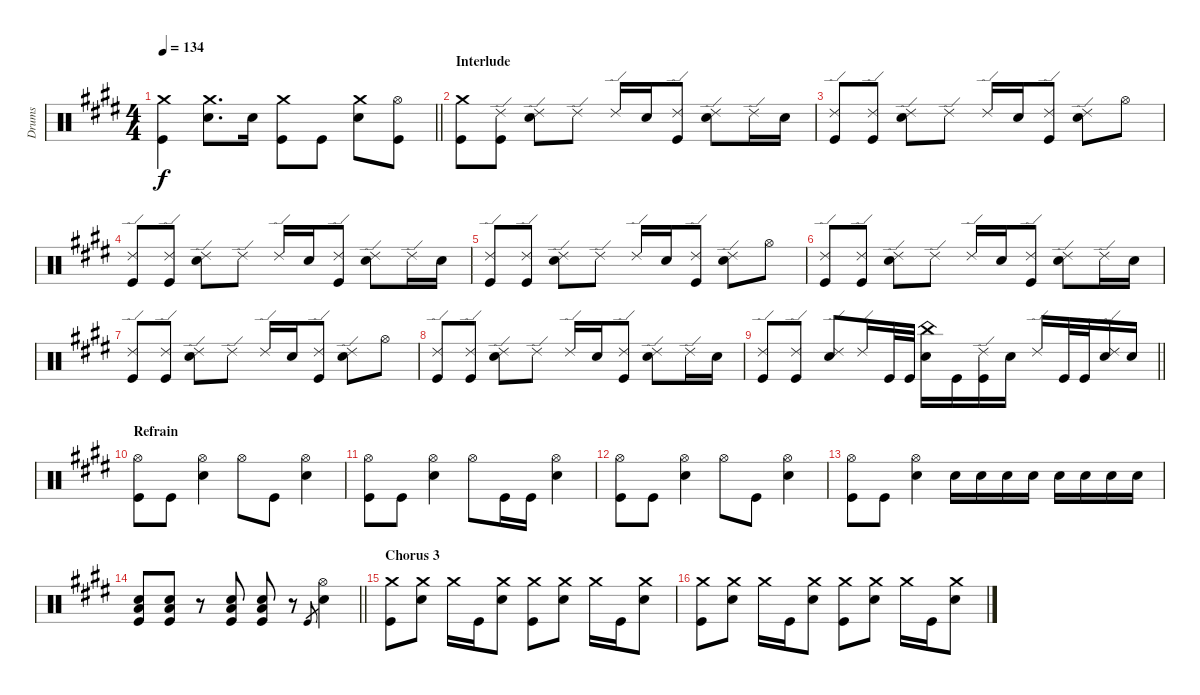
\track ("Drums" "Drums") {instrument percussion}
\staff {score}
\articulation defaults
\ts (4 4)
\tempo 134
\clef neutral
\barLineRight lightlight
\ks e
("Crash medium (hit)" "Kick (hit)").4{dy f} ("Crash medium (hit)" "Snare (hit) 2").8{d} "Snare (hit) 2".16 ("Crash medium (hit)" "Kick (hit)").8 "Kick (hit)".8 ("Crash medium (hit)" "Snare (hit) 2").8 ("Hi-Hat (open)" "Kick (hit)").8 |
\section ("" "Interlude")
("Crash medium (hit)" "Kick (hit)").8 ("Ride (edge) 2" "Kick (hit)").8 ("Ride (edge) 2" "Snare (hit) 2").8 "Ride (edge) 2".8 "Ride (edge) 2".16 "Snare (hit) 2".16 ("Ride (edge) 2" "Kick (hit)").8 ("Ride (edge) 2" "Snare (hit) 2").8 "Ride (edge) 2".16 "Snare (hit) 2".16 |
("Ride (edge) 2" "Kick (hit)").8 ("Ride (edge) 2" "Kick (hit)").8 ("Ride (edge) 2" "Snare (hit) 2").8 "Ride (edge) 2".8 "Ride (edge) 2".16 "Snare (hit) 2".16 ("Ride (edge) 2" "Kick (hit)").8 ("Ride (edge) 2" "Snare (hit) 2").8 "Hi-Hat (open)".8 |
("Ride (edge) 2" "Kick (hit)").8 ("Ride (edge) 2" "Kick (hit)").8 ("Ride (edge) 2" "Snare (hit) 2").8 "Ride (edge) 2".8 "Ride (edge) 2".16 "Snare (hit) 2".16 ("Ride (edge) 2" "Kick (hit)").8 ("Ride (edge) 2" "Snare (hit) 2").8 "Ride (edge) 2".16 "Snare (hit) 2".16 |
("Ride (edge) 2" "Kick (hit)").8 ("Ride (edge) 2" "Kick (hit)").8 ("Ride (edge) 2" "Snare (hit) 2").8 "Ride (edge) 2".8 "Ride (edge) 2".16 "Snare (hit) 2".16 ("Ride (edge) 2" "Kick (hit)").8 ("Ride (edge) 2" "Snare (hit) 2").8 "Hi-Hat (open)".8 |
("Ride (edge) 2" "Kick (hit)").8 ("Ride (edge) 2" "Kick (hit)").8 ("Ride (edge) 2" "Snare (hit) 2").8 "Ride (edge) 2".8 "Ride (edge) 2".16 "Snare (hit) 2".16 ("Ride (edge) 2" "Kick (hit)").8 ("Ride (edge) 2" "Snare (hit) 2").8 "Ride (edge) 2".16 "Snare (hit) 2".16 |
("Ride (edge) 2" "Kick (hit)").8 ("Ride (edge) 2" "Kick (hit)").8 ("Ride (edge) 2" "Snare (hit) 2").8 "Ride (edge) 2".8 "Ride (edge) 2".16 "Snare (hit) 2".16 ("Ride (edge) 2" "Kick (hit)").8 ("Ride (edge) 2" "Snare (hit) 2").8 "Hi-Hat (open)".8 |
("Ride (edge) 2" "Kick (hit)").8 ("Ride (edge) 2" "Kick (hit)").8 ("Ride (edge) 2" "Snare (hit) 2").8 "Ride (edge) 2".8 "Ride (edge) 2".16 "Snare (hit) 2".16 ("Ride (edge) 2" "Kick (hit)").8 ("Ride (edge) 2" "Snare (hit) 2").8 "Ride (edge) 2".16 "Snare (hit) 2".16 |
\barLineRight lightlight
("Ride (edge) 2" "Kick (hit)").8 ("Ride (edge) 2" "Kick (hit)").8 ("Ride (edge) 2" "Snare (hit) 2").8 "Ride (edge) 2".16 "Kick (hit)".32 "Kick (hit)".32 ("China (hit)" "Snare (hit) 2").16 "Kick (hit)".16 ("Ride (edge) 2" "Kick (hit)").16 "Snare (hit) 2".16 "Ride (edge) 2".16 "Kick (hit)".32 "Kick (hit)".32 ("Ride (edge) 2" "Snare (hit) 2").16 "Snare (hit) 2".16 |
\section ("" "Refrain")
("Hi-Hat (open)" "Kick (hit)").8 "Kick (hit)".8 ("Hi-Hat (open)" "Snare (hit) 2").4 "Hi-Hat (open)".8 "Kick (hit)".8 ("Hi-Hat (open)" "Snare (hit) 2").4 |
("Hi-Hat (open)" "Kick (hit)").8 "Kick (hit)".8 ("Hi-Hat (open)" "Snare (hit) 2").4 "Hi-Hat (open)".8 "Kick (hit)".16 "Kick (hit)".16 ("Hi-Hat (open)" "Snare (hit) 2").4 |
("Hi-Hat (open)" "Kick (hit)").8 "Kick (hit)".8 ("Hi-Hat (open)" "Snare (hit) 2").4 "Hi-Hat (open)".8 "Kick (hit)".8 ("Hi-Hat (open)" "Snare (hit) 2").4 |
("Hi-Hat (open)" "Kick (hit)").8 "Kick (hit)".8 ("Hi-Hat (open)" "Snare (hit) 2").4 "Snare (hit) 2".16 "Snare (hit) 2".16 "Snare (hit) 2".16 "Snare (hit) 2".16 "Snare (hit) 2".16 "Snare (hit) 2".16 "Snare (hit) 2".16 "Snare (hit) 2".16 |
\barLineRight lightlight
("Snare (hit) 2" "Low Floor Tom (hit)" "Kick (hit)").8 ("Snare (hit) 2" "Low Floor Tom (hit)" "Kick (hit)").8 r.8 ("Snare (hit) 2" "Low Floor Tom (hit)" "Kick (hit)").8 ("Snare (hit) 2" "Low Floor Tom (hit)" "Kick (hit)").8 r.8 "Kick (hit)".8{gr} ("Hi-Hat (open)" "Snare (hit) 2").4 |
\section ("" "Chorus 3")
("Crash medium (hit)" "Kick (hit)").8 ("Crash medium (hit)" "Snare (hit) 2").8 "Crash medium (hit)".16 "Kick (hit)".16 ("Crash medium (hit)" "Snare (hit) 2").8 ("Crash medium (hit)" "Kick (hit)").8 ("Crash medium (hit)" "Snare (hit) 2").8 "Crash medium (hit)".16 "Kick (hit)".16 ("Crash medium (hit)" "Snare (hit) 2").8 |
("Crash medium (hit)" "Kick (hit)").8 ("Crash medium (hit)" "Snare (hit) 2").8 "Crash medium (hit)".16 "Kick (hit)".16 ("Crash medium (hit)" "Snare (hit) 2").8 ("Crash medium (hit)" "Kick (hit)").8 ("Crash medium (hit)" "Snare (hit) 2").8 "Crash medium (hit)".16 "Kick (hit)".16 ("Crash medium (hit)" "Snare (hit) 2").8
